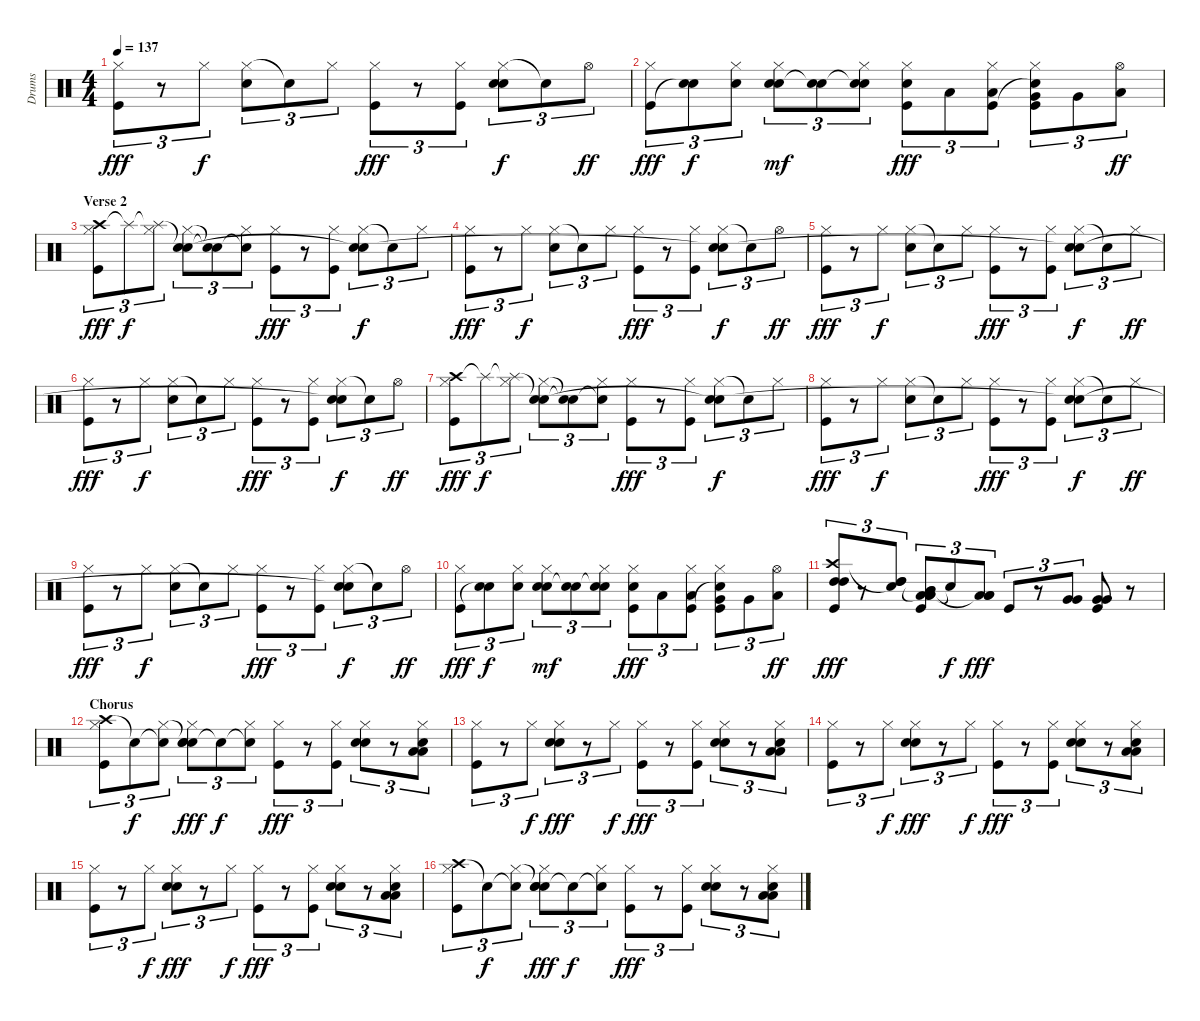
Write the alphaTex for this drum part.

\track ("Drums" "Drums") {instrument percussion}
\staff {score}
\articulation defaults
\ts (4 4)
\tempo 137
\clef neutral
\ks c
("Hi-Hat (closed)" "Kick (hit)").8{tu (3 2) dy fff} r.8{tu (3 2)} "Hi-Hat (closed)".8{tu (3 2) dy f} ("Hi-Hat (closed)" "Electric Snare (hit)").8{tu (3 2)} "Electric Snare (hit)"{t}.8{tu (3 2)} "Hi-Hat (closed)".8{tu (3 2)} ("Hi-Hat (closed)" "Kick (hit)").8{tu (3 2) dy fff} r.8{tu (3 2)} ("Hi-Hat (closed)" "Kick (hit)").8{tu (3 2)} ("Hi-Hat (closed)" "Electric Snare (hit)" "Snare (hit)"{t}).8{tu (3 2) dy f} "Snare (hit)"{t}.8{tu (3 2)} "Hi-Hat (open)".8{tu (3 2) dy ff} |
("Hi-Hat (closed)" "Kick (hit)").8{tu (3 2) dy fff} ("Electric Snare (hit)" "Snare (hit)"{t}).8{tu (3 2) dy f} ("Hi-Hat (closed)" "Electric Snare (hit)").8{tu (3 2)} ("Hand Clap (hit)" "Hi-Hat (closed)" "Electric Snare (hit)").8{tu (3 2) dy mf} ("Snare (hit)"{t} "Electric Snare (hit)").8{tu (3 2)} ("Snare (hit)"{t} "Hi-Hat (closed)" "Electric Snare (hit)").8{tu (3 2)} ("Hi-Hat (closed)" "Electric Snare (hit)" "Kick (hit)").8{tu (3 2) dy fff} "Low Tom (hit)".8{tu (3 2)} ("Hi-Hat (closed)" "Low Tom (hit)" "Kick (hit)").8{tu (3 2)} ("Very Low Tom (hit)" "Hi-Hat (closed)" "Electric Snare (hit)"{t} "Kick (hit)").8{tu (3 2)} "Very Low Tom (hit)".8{tu (3 2)} ("Low Floor Tom (hit)" "Hi-Hat (open)").8{tu (3 2) dy ff} |
\section ("" "Verse 2")
("Crash high (hit)" "Hi-Hat (closed)" "Kick (hit)").8{tu (3 2) dy fff} "Splash (hit)"{t}.8{tu (3 2) dy f} ("Splash (hit)"{t} "Hi-Hat (closed)").8{tu (3 2)} ("Snare (hit)"{t} "Hi-Hat (closed)" "Electric Snare (hit)").8{tu (3 2)} ("Snare (hit)"{t} "Electric Snare (hit)"{t}).8{tu (3 2)} ("Snare (hit)"{t} "Hi-Hat (closed)").8{tu (3 2)} ("Hi-Hat (closed)" "Kick (hit)").8{tu (3 2) dy fff} r.8{tu (3 2)} ("Hi-Hat (closed)" "Kick (hit)").8{tu (3 2)} ("Hi-Hat (closed)" "Electric Snare (hit)" "Snare (hit)"{t}).8{tu (3 2) dy f} "Snare (hit)"{t}.8{tu (3 2)} "Hi-Hat (closed)".8{tu (3 2)} |
("Hi-Hat (closed)" "Kick (hit)").8{tu (3 2) dy fff} r.8{tu (3 2)} "Hi-Hat (closed)".8{tu (3 2) dy f} ("Hi-Hat (closed)" "Electric Snare (hit)").8{tu (3 2)} "Electric Snare (hit)"{t}.8{tu (3 2)} "Hi-Hat (closed)".8{tu (3 2)} ("Hi-Hat (closed)" "Kick (hit)").8{tu (3 2) dy fff} r.8{tu (3 2)} ("Hi-Hat (closed)" "Kick (hit)").8{tu (3 2)} ("Hi-Hat (closed)" "Electric Snare (hit)" "Snare (hit)"{t}).8{tu (3 2) dy f} "Snare (hit)"{t}.8{tu (3 2)} "Hi-Hat (open)".8{tu (3 2) dy ff} |
("Hi-Hat (closed)" "Kick (hit)").8{tu (3 2) dy fff} r.8{tu (3 2)} "Hi-Hat (closed)".8{tu (3 2) dy f} ("Hi-Hat (closed)" "Electric Snare (hit)").8{tu (3 2)} "Electric Snare (hit)"{t}.8{tu (3 2)} "Hi-Hat (closed)".8{tu (3 2)} ("Hi-Hat (closed)" "Kick (hit)").8{tu (3 2) dy fff} r.8{tu (3 2)} ("Hi-Hat (closed)" "Kick (hit)").8{tu (3 2)} ("Hi-Hat (closed)" "Electric Snare (hit)" "Snare (hit)"{t}).8{tu (3 2) dy f} "Snare (hit)"{t}.8{tu (3 2)} "Hi-Hat (closed)".8{tu (3 2) dy ff} |
("Hi-Hat (closed)" "Kick (hit)").8{tu (3 2) dy fff} r.8{tu (3 2)} "Hi-Hat (closed)".8{tu (3 2) dy f} ("Hi-Hat (closed)" "Electric Snare (hit)").8{tu (3 2)} "Electric Snare (hit)"{t}.8{tu (3 2)} "Hi-Hat (closed)".8{tu (3 2)} ("Hi-Hat (closed)" "Kick (hit)").8{tu (3 2) dy fff} r.8{tu (3 2)} ("Hi-Hat (closed)" "Kick (hit)").8{tu (3 2)} ("Hi-Hat (closed)" "Electric Snare (hit)" "Snare (hit)"{t}).8{tu (3 2) dy f} "Snare (hit)"{t}.8{tu (3 2)} "Hi-Hat (open)".8{tu (3 2) dy ff} |
("Crash high (hit)" "Hi-Hat (closed)" "Kick (hit)").8{tu (3 2) dy fff} "Splash (hit)"{t}.8{tu (3 2) dy f} ("Splash (hit)"{t} "Hi-Hat (closed)").8{tu (3 2)} ("Snare (hit)"{t} "Hi-Hat (closed)" "Electric Snare (hit)").8{tu (3 2)} ("Snare (hit)"{t} "Electric Snare (hit)"{t}).8{tu (3 2)} ("Snare (hit)"{t} "Hi-Hat (closed)").8{tu (3 2)} ("Hi-Hat (closed)" "Kick (hit)").8{tu (3 2) dy fff} r.8{tu (3 2)} ("Hi-Hat (closed)" "Kick (hit)").8{tu (3 2)} ("Hi-Hat (closed)" "Electric Snare (hit)" "Snare (hit)"{t}).8{tu (3 2) dy f} "Snare (hit)"{t}.8{tu (3 2)} "Hi-Hat (closed)".8{tu (3 2)} |
("Hi-Hat (closed)" "Kick (hit)").8{tu (3 2) dy fff} r.8{tu (3 2)} "Hi-Hat (closed)".8{tu (3 2) dy f} ("Hi-Hat (closed)" "Electric Snare (hit)").8{tu (3 2)} "Electric Snare (hit)"{t}.8{tu (3 2)} "Hi-Hat (closed)".8{tu (3 2)} ("Hi-Hat (closed)" "Kick (hit)").8{tu (3 2) dy fff} r.8{tu (3 2)} ("Hi-Hat (closed)" "Kick (hit)").8{tu (3 2)} ("Hi-Hat (closed)" "Electric Snare (hit)" "Snare (hit)"{t}).8{tu (3 2) dy f} "Snare (hit)"{t}.8{tu (3 2)} "Hi-Hat (closed)".8{tu (3 2) dy ff} |
("Hi-Hat (closed)" "Kick (hit)").8{tu (3 2) dy fff} r.8{tu (3 2)} "Hi-Hat (closed)".8{tu (3 2) dy f} ("Hi-Hat (closed)" "Electric Snare (hit)").8{tu (3 2)} "Electric Snare (hit)"{t}.8{tu (3 2)} "Hi-Hat (closed)".8{tu (3 2)} ("Hi-Hat (closed)" "Kick (hit)").8{tu (3 2) dy fff} r.8{tu (3 2)} ("Hi-Hat (closed)" "Kick (hit)").8{tu (3 2)} ("Hi-Hat (closed)" "Electric Snare (hit)" "Snare (hit)"{t}).8{tu (3 2) dy f} "Snare (hit)"{t}.8{tu (3 2)} "Hi-Hat (open)".8{tu (3 2) dy ff} |
("Hi-Hat (closed)" "Kick (hit)").8{tu (3 2) dy fff} ("Electric Snare (hit)" "Snare (hit)"{t}).8{tu (3 2) dy f} ("Hi-Hat (closed)" "Electric Snare (hit)").8{tu (3 2)} ("Hand Clap (hit)" "Hi-Hat (closed)" "Electric Snare (hit)").8{tu (3 2) dy mf} ("Snare (hit)"{t} "Electric Snare (hit)").8{tu (3 2)} ("Snare (hit)"{t} "Hi-Hat (closed)" "Electric Snare (hit)").8{tu (3 2)} ("Hi-Hat (closed)" "Electric Snare (hit)" "Kick (hit)").8{tu (3 2) dy fff} "Low Tom (hit)".8{tu (3 2)} ("Hi-Hat (closed)" "Low Tom (hit)" "Kick (hit)").8{tu (3 2)} ("Very Low Tom (hit)" "Hi-Hat (closed)" "Electric Snare (hit)"{t} "Kick (hit)").8{tu (3 2)} "Very Low Tom (hit)".8{tu (3 2)} ("Low Floor Tom (hit)" "Hi-Hat (open)").8{tu (3 2) dy ff} |
("High Tom (hit)" "Crash high (hit)" "High Tom (hit)" "Kick (hit)").8{tu (3 2) dy fff} r.8{tu (3 2)} ("High Tom (hit)" "Snare (hit)"{t} "High Tom (hit)").8{tu (3 2)} ("Low Tom (hit)" "Mid Tom (hit)" "Low Tom (hit)"{t} "Mid Tom (hit)" "Low Tom (hit)" "Kick (hit)").8{tu (3 2)} "Snare (hit)"{t}.8{tu (3 2) dy f} ("Low Tom (hit)" "Low Tom (hit)"{t} "Low Tom (hit)").8{tu (3 2) dy fff} "Kick (hit)".8{tu (3 2)} r.8{tu (3 2)} ("Very Low Tom (hit)" "Very Low Tom (hit)").8{tu (3 2)} ("Very Low Tom (hit)" "Very Low Tom (hit)" "Kick (hit)").8 r.8 |
\section ("" "Chorus")
("Crash high (hit)" "Hi-Hat (closed)" "Kick (hit)").8{tu (3 2)} "Snare (hit)"{t}.8{tu (3 2) dy f} ("Snare (hit)"{t} "Hi-Hat (closed)").8{tu (3 2)} ("Hand Clap (hit)" "Hand Clap (hit)"{t} "Hi-Hat (closed)" "Electric Snare (hit)").8{tu (3 2) dy fff} "Snare (hit)"{t}.8{tu (3 2) dy f} ("Snare (hit)"{t} "Hi-Hat (closed)").8{tu (3 2)} ("Hi-Hat (closed)" "Kick (hit)").8{tu (3 2) dy fff} r.8{tu (3 2)} ("Hi-Hat (closed)" "Kick (hit)").8{tu (3 2)} ("Hand Clap (hit)" "Hi-Hat (closed)" "Electric Snare (hit)").8{tu (3 2)} r.8{tu (3 2)} ("Low Tom (hit)" "Low Floor Tom (hit)" "Hi-Hat (closed)" "Electric Snare (hit)").8{tu (3 2)} |
("Hi-Hat (closed)" "Kick (hit)").8{tu (3 2)} r.8{tu (3 2)} "Hi-Hat (closed)".8{tu (3 2) dy f} ("Hand Clap (hit)" "Hi-Hat (closed)" "Electric Snare (hit)").8{tu (3 2) dy fff} r.8{tu (3 2)} "Hi-Hat (closed)".8{tu (3 2) dy f} ("Hi-Hat (closed)" "Kick (hit)").8{tu (3 2) dy fff} r.8{tu (3 2)} ("Hi-Hat (closed)" "Kick (hit)").8{tu (3 2)} ("Hand Clap (hit)" "Hi-Hat (closed)" "Electric Snare (hit)").8{tu (3 2)} r.8{tu (3 2)} ("Low Tom (hit)" "Low Floor Tom (hit)" "Hi-Hat (closed)" "Electric Snare (hit)").8{tu (3 2)} |
("Hi-Hat (closed)" "Kick (hit)").8{tu (3 2)} r.8{tu (3 2)} "Hi-Hat (closed)".8{tu (3 2) dy f} ("Hand Clap (hit)" "Hi-Hat (closed)" "Electric Snare (hit)").8{tu (3 2) dy fff} r.8{tu (3 2)} "Hi-Hat (closed)".8{tu (3 2) dy f} ("Hi-Hat (closed)" "Kick (hit)").8{tu (3 2) dy fff} r.8{tu (3 2)} ("Hi-Hat (closed)" "Kick (hit)").8{tu (3 2)} ("Hand Clap (hit)" "Hi-Hat (closed)" "Electric Snare (hit)").8{tu (3 2)} r.8{tu (3 2)} ("Low Tom (hit)" "Low Floor Tom (hit)" "Hi-Hat (closed)" "Electric Snare (hit)").8{tu (3 2)} |
("Hi-Hat (closed)" "Kick (hit)").8{tu (3 2)} r.8{tu (3 2)} "Hi-Hat (closed)".8{tu (3 2) dy f} ("Hand Clap (hit)" "Hi-Hat (closed)" "Electric Snare (hit)").8{tu (3 2) dy fff} r.8{tu (3 2)} "Hi-Hat (closed)".8{tu (3 2) dy f} ("Hi-Hat (closed)" "Kick (hit)").8{tu (3 2) dy fff} r.8{tu (3 2)} ("Hi-Hat (closed)" "Kick (hit)").8{tu (3 2)} ("Hand Clap (hit)" "Hi-Hat (closed)" "Electric Snare (hit)").8{tu (3 2)} r.8{tu (3 2)} ("Low Tom (hit)" "Low Floor Tom (hit)" "Hi-Hat (closed)" "Electric Snare (hit)").8{tu (3 2)} |
("Crash high (hit)" "Hi-Hat (closed)" "Kick (hit)").8{tu (3 2)} "Snare (hit)"{t}.8{tu (3 2) dy f} ("Snare (hit)"{t} "Hi-Hat (closed)").8{tu (3 2)} ("Hand Clap (hit)" "Hand Clap (hit)"{t} "Hi-Hat (closed)" "Electric Snare (hit)").8{tu (3 2) dy fff} "Snare (hit)"{t}.8{tu (3 2) dy f} ("Snare (hit)"{t} "Hi-Hat (closed)").8{tu (3 2)} ("Hi-Hat (closed)" "Kick (hit)").8{tu (3 2) dy fff} r.8{tu (3 2)} ("Hi-Hat (closed)" "Kick (hit)").8{tu (3 2)} ("Hand Clap (hit)" "Hi-Hat (closed)" "Electric Snare (hit)").8{tu (3 2)} r.8{tu (3 2)} ("Low Tom (hit)" "Low Floor Tom (hit)" "Hi-Hat (closed)" "Electric Snare (hit)").8{tu (3 2)}
